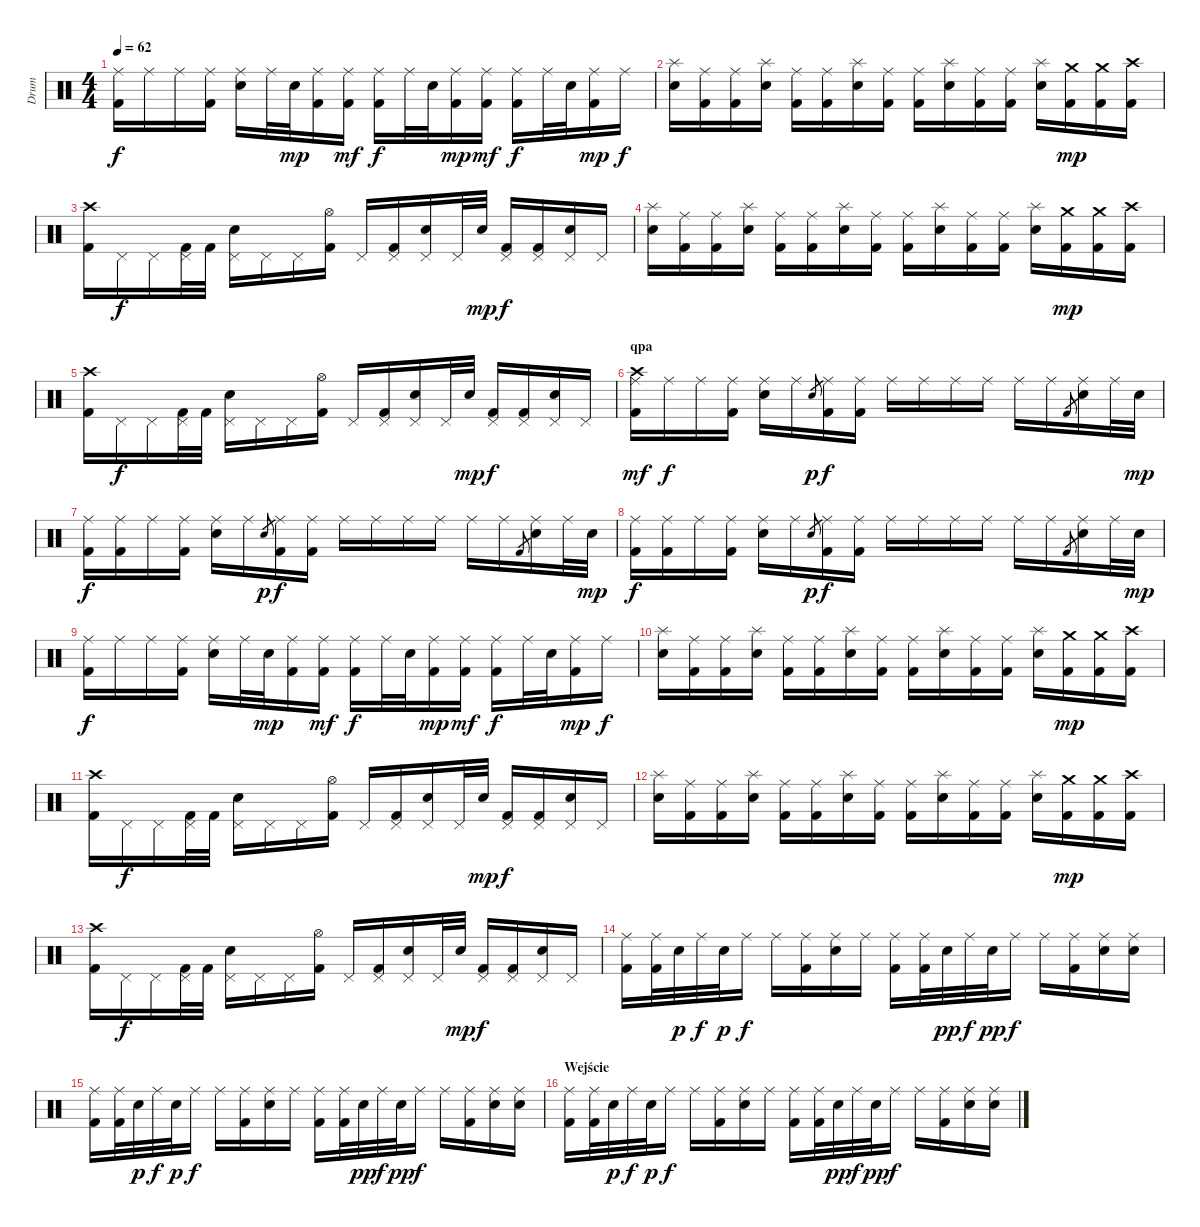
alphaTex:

\track ("Drum" "Drum") {instrument percussion}
\staff {score}
\articulation defaults
\ts (4 4)
\tempo 62
\clef neutral
\ks c
("Ride (middle)" "Kick (hit) 2").16{dy f} "Ride (middle)".16 "Ride (middle)".16 ("Ride (middle)" "Kick (hit) 2").16 ("Ride (middle)" "Electric Snare (hit)").16 "Ride (middle)".32 "Snare (hit) 2".32{dy mp} ("Ride (middle)" "Kick (hit) 2").16 ("Ride (middle)" "Kick (hit) 2").16{dy mf} ("Ride (middle)" "Kick (hit) 2").16{dy f} "Ride (middle)".32 "Electric Snare (hit)".32 ("Ride (middle)" "Kick (hit) 2").16{dy mp} ("Ride (middle)" "Kick (hit) 2").16{dy mf} ("Ride (middle)" "Kick (hit) 2").16{dy f} "Ride (middle)".32 "Electric Snare (hit)".32 ("Ride (middle)" "Kick (hit) 2").16{dy mp} "Ride (middle)".16{dy f} |
("Splash (hit)" "Electric Snare (hit)").16 ("Ride (middle)" "Kick (hit) 2").16 ("Ride (middle)" "Kick (hit) 2").16 ("Splash (hit)" "Electric Snare (hit)").16 ("Ride (middle)" "Kick (hit) 2").16 ("Ride (middle)" "Kick (hit) 2").16 ("Splash (hit)" "Electric Snare (hit)").16 ("Ride (middle)" "Kick (hit) 2").16 ("Ride (middle)" "Kick (hit) 2").16 ("Splash (hit)" "Electric Snare (hit)").16 ("Ride (middle)" "Kick (hit) 2").16 ("Ride (middle)" "Kick (hit) 2").16 ("Splash (hit)" "Electric Snare (hit)").16 ("Crash medium (hit)" "Kick (hit) 2").16{dy mp} ("Crash medium (hit)" "Kick (hit) 2").16 ("Crash high (hit)" "Kick (hit) 2").16 |
("Crash high (hit)" "Kick (hit) 2").16 "Pedal Hi-Hat (hit)".16{dy f} "Pedal Hi-Hat (hit)".16 ("Pedal Hi-Hat (hit)" "Kick (hit) 2").32 "Kick (hit) 2".32 ("Pedal Hi-Hat (hit)" "Electric Snare (hit)").16 "Pedal Hi-Hat (hit)".16 "Pedal Hi-Hat (hit)".16 ("Hi-Hat (open)" "Kick (hit) 2").16 "Pedal Hi-Hat (hit)".16 ("Pedal Hi-Hat (hit)" "Kick (hit) 2").16 ("Pedal Hi-Hat (hit)" "Electric Snare (hit)").16 "Pedal Hi-Hat (hit)".32 "Electric Snare (hit)".32{dy mp} ("Pedal Hi-Hat (hit)" "Kick (hit) 2").16{dy f} ("Pedal Hi-Hat (hit)" "Kick (hit) 2").16 ("Pedal Hi-Hat (hit)" "Electric Snare (hit)").16 "Pedal Hi-Hat (hit)".16 |
("Splash (hit)" "Electric Snare (hit)").16 ("Ride (middle)" "Kick (hit) 2").16 ("Ride (middle)" "Kick (hit) 2").16 ("Splash (hit)" "Electric Snare (hit)").16 ("Ride (middle)" "Kick (hit) 2").16 ("Ride (middle)" "Kick (hit) 2").16 ("Splash (hit)" "Electric Snare (hit)").16 ("Ride (middle)" "Kick (hit) 2").16 ("Ride (middle)" "Kick (hit) 2").16 ("Splash (hit)" "Electric Snare (hit)").16 ("Ride (middle)" "Kick (hit) 2").16 ("Ride (middle)" "Kick (hit) 2").16 ("Splash (hit)" "Electric Snare (hit)").16 ("Crash medium (hit)" "Kick (hit) 2").16{dy mp} ("Crash medium (hit)" "Kick (hit) 2").16 ("Crash high (hit)" "Kick (hit) 2").16 |
("Crash high (hit)" "Kick (hit) 2").16 "Pedal Hi-Hat (hit)".16{dy f} "Pedal Hi-Hat (hit)".16 ("Pedal Hi-Hat (hit)" "Kick (hit) 2").32 "Kick (hit) 2".32 ("Pedal Hi-Hat (hit)" "Electric Snare (hit)").16 "Pedal Hi-Hat (hit)".16 "Pedal Hi-Hat (hit)".16 ("Hi-Hat (open)" "Kick (hit) 2").16 "Pedal Hi-Hat (hit)".16 ("Pedal Hi-Hat (hit)" "Kick (hit) 2").16 ("Pedal Hi-Hat (hit)" "Electric Snare (hit)").16 "Pedal Hi-Hat (hit)".32 "Electric Snare (hit)".32{dy mp} ("Pedal Hi-Hat (hit)" "Kick (hit) 2").16{dy f} ("Pedal Hi-Hat (hit)" "Kick (hit) 2").16 ("Pedal Hi-Hat (hit)" "Electric Snare (hit)").16 "Pedal Hi-Hat (hit)".16 |
\section ("" "qpa")
("Crash high (hit)" "Ride (middle)" "Kick (hit) 2").16{dy mf} "Ride (middle)".16{dy f} "Ride (middle)".16 ("Ride (middle)" "Kick (hit) 2").16 ("Ride (middle)" "Electric Snare (hit)").16 "Ride (middle)".16 "Snare (hit) 2".8{gr dy p} ("Ride (middle)" "Kick (hit) 2").16{dy f} ("Ride (middle)" "Kick (hit) 2").16 "Ride (middle)".16 "Ride (middle)".16 "Ride (middle)".16 "Ride (middle)".16 "Ride (middle)".16 "Ride (middle)".16 "Kick (hit) 2".8{gr} ("Ride (middle)" "Electric Snare (hit)").16 "Ride (middle)".32 "Snare (hit) 2".32{dy mp} |
("Ride (middle)" "Kick (hit) 2").16{dy f} ("Ride (middle)" "Kick (hit) 2").16 "Ride (middle)".16 ("Ride (middle)" "Kick (hit) 2").16 ("Ride (middle)" "Electric Snare (hit)").16 "Ride (middle)".16 "Snare (hit) 2".8{gr dy p} ("Ride (middle)" "Kick (hit) 2").16{dy f} ("Ride (middle)" "Kick (hit) 2").16 "Ride (middle)".16 "Ride (middle)".16 "Ride (middle)".16 "Ride (middle)".16 "Ride (middle)".16 "Ride (middle)".16 "Kick (hit) 2".8{gr} ("Ride (middle)" "Electric Snare (hit)").16 "Ride (middle)".32 "Snare (hit) 2".32{dy mp} |
("Ride (middle)" "Kick (hit) 2").16{dy f} ("Ride (middle)" "Kick (hit) 2").16 "Ride (middle)".16 ("Ride (middle)" "Kick (hit) 2").16 ("Ride (middle)" "Electric Snare (hit)").16 "Ride (middle)".16 "Snare (hit) 2".8{gr dy p} ("Ride (middle)" "Kick (hit) 2").16{dy f} ("Ride (middle)" "Kick (hit) 2").16 "Ride (middle)".16 "Ride (middle)".16 "Ride (middle)".16 "Ride (middle)".16 "Ride (middle)".16 "Ride (middle)".16 "Kick (hit) 2".8{gr} ("Ride (middle)" "Electric Snare (hit)").16 "Ride (middle)".32 "Snare (hit) 2".32{dy mp} |
("Ride (middle)" "Kick (hit) 2").16{dy f} "Ride (middle)".16 "Ride (middle)".16 ("Ride (middle)" "Kick (hit) 2").16 ("Ride (middle)" "Electric Snare (hit)").16 "Ride (middle)".32 "Snare (hit) 2".32{dy mp} ("Ride (middle)" "Kick (hit) 2").16 ("Ride (middle)" "Kick (hit) 2").16{dy mf} ("Ride (middle)" "Kick (hit) 2").16{dy f} "Ride (middle)".32 "Electric Snare (hit)".32 ("Ride (middle)" "Kick (hit) 2").16{dy mp} ("Ride (middle)" "Kick (hit) 2").16{dy mf} ("Ride (middle)" "Kick (hit) 2").16{dy f} "Ride (middle)".32 "Electric Snare (hit)".32 ("Ride (middle)" "Kick (hit) 2").16{dy mp} "Ride (middle)".16{dy f} |
("Splash (hit)" "Electric Snare (hit)").16 ("Ride (middle)" "Kick (hit) 2").16 ("Ride (middle)" "Kick (hit) 2").16 ("Splash (hit)" "Electric Snare (hit)").16 ("Ride (middle)" "Kick (hit) 2").16 ("Ride (middle)" "Kick (hit) 2").16 ("Splash (hit)" "Electric Snare (hit)").16 ("Ride (middle)" "Kick (hit) 2").16 ("Ride (middle)" "Kick (hit) 2").16 ("Splash (hit)" "Electric Snare (hit)").16 ("Ride (middle)" "Kick (hit) 2").16 ("Ride (middle)" "Kick (hit) 2").16 ("Splash (hit)" "Electric Snare (hit)").16 ("Crash medium (hit)" "Kick (hit) 2").16{dy mp} ("Crash medium (hit)" "Kick (hit) 2").16 ("Crash high (hit)" "Kick (hit) 2").16 |
("Crash high (hit)" "Kick (hit) 2").16 "Pedal Hi-Hat (hit)".16{dy f} "Pedal Hi-Hat (hit)".16 ("Pedal Hi-Hat (hit)" "Kick (hit) 2").32 "Kick (hit) 2".32 ("Pedal Hi-Hat (hit)" "Electric Snare (hit)").16 "Pedal Hi-Hat (hit)".16 "Pedal Hi-Hat (hit)".16 ("Hi-Hat (open)" "Kick (hit) 2").16 "Pedal Hi-Hat (hit)".16 ("Pedal Hi-Hat (hit)" "Kick (hit) 2").16 ("Pedal Hi-Hat (hit)" "Electric Snare (hit)").16 "Pedal Hi-Hat (hit)".32 "Electric Snare (hit)".32{dy mp} ("Pedal Hi-Hat (hit)" "Kick (hit) 2").16{dy f} ("Pedal Hi-Hat (hit)" "Kick (hit) 2").16 ("Pedal Hi-Hat (hit)" "Electric Snare (hit)").16 "Pedal Hi-Hat (hit)".16 |
("Splash (hit)" "Electric Snare (hit)").16 ("Ride (middle)" "Kick (hit) 2").16 ("Ride (middle)" "Kick (hit) 2").16 ("Splash (hit)" "Electric Snare (hit)").16 ("Ride (middle)" "Kick (hit) 2").16 ("Ride (middle)" "Kick (hit) 2").16 ("Splash (hit)" "Electric Snare (hit)").16 ("Ride (middle)" "Kick (hit) 2").16 ("Ride (middle)" "Kick (hit) 2").16 ("Splash (hit)" "Electric Snare (hit)").16 ("Ride (middle)" "Kick (hit) 2").16 ("Ride (middle)" "Kick (hit) 2").16 ("Splash (hit)" "Electric Snare (hit)").16 ("Crash medium (hit)" "Kick (hit) 2").16{dy mp} ("Crash medium (hit)" "Kick (hit) 2").16 ("Crash high (hit)" "Kick (hit) 2").16 |
("Crash high (hit)" "Kick (hit) 2").16 "Pedal Hi-Hat (hit)".16{dy f} "Pedal Hi-Hat (hit)".16 ("Pedal Hi-Hat (hit)" "Kick (hit) 2").32 "Kick (hit) 2".32 ("Pedal Hi-Hat (hit)" "Electric Snare (hit)").16 "Pedal Hi-Hat (hit)".16 "Pedal Hi-Hat (hit)".16 ("Hi-Hat (open)" "Kick (hit) 2").16 "Pedal Hi-Hat (hit)".16 ("Pedal Hi-Hat (hit)" "Kick (hit) 2").16 ("Pedal Hi-Hat (hit)" "Electric Snare (hit)").16 "Pedal Hi-Hat (hit)".32 "Electric Snare (hit)".32{dy mp} ("Pedal Hi-Hat (hit)" "Kick (hit) 2").16{dy f} ("Pedal Hi-Hat (hit)" "Kick (hit) 2").16 ("Pedal Hi-Hat (hit)" "Electric Snare (hit)").16 "Pedal Hi-Hat (hit)".16 |
("Ride (middle)" "Kick (hit) 2").16 ("Ride (middle)" "Kick (hit) 2").32 "Electric Snare (hit)".32{dy p} "Ride (middle)".32{dy f} "Electric Snare (hit)".32{dy p} "Ride (middle)".16{dy f} "Ride (middle)".16 ("Ride (middle)" "Kick (hit) 2").16 ("Ride (middle)" "Electric Snare (hit)").16 "Ride (middle)".16 ("Ride (middle)" "Kick (hit) 2").16 ("Ride (middle)" "Kick (hit) 2").32 "Electric Snare (hit)".32{dy pp} "Ride (middle)".32{dy f} "Electric Snare (hit)".32{dy pp} "Ride (middle)".16{dy f} "Ride (middle)".16 ("Ride (middle)" "Kick (hit) 2").16 ("Ride (middle)" "Electric Snare (hit)").16 ("Ride (middle)" "Electric Snare (hit)").16 |
("Ride (middle)" "Kick (hit) 2").16 ("Ride (middle)" "Kick (hit) 2").32 "Electric Snare (hit)".32{dy p} "Ride (middle)".32{dy f} "Electric Snare (hit)".32{dy p} "Ride (middle)".16{dy f} "Ride (middle)".16 ("Ride (middle)" "Kick (hit) 2").16 ("Ride (middle)" "Electric Snare (hit)").16 "Ride (middle)".16 ("Ride (middle)" "Kick (hit) 2").16 ("Ride (middle)" "Kick (hit) 2").32 "Electric Snare (hit)".32{dy pp} "Ride (middle)".32{dy f} "Electric Snare (hit)".32{dy pp} "Ride (middle)".16{dy f} "Ride (middle)".16 ("Ride (middle)" "Kick (hit) 2").16 ("Ride (middle)" "Electric Snare (hit)").16 ("Ride (middle)" "Electric Snare (hit)").16 |
\section ("" "Wejście")
("Ride (middle)" "Kick (hit) 2").16 ("Ride (middle)" "Kick (hit) 2").32 "Electric Snare (hit)".32{dy p} "Ride (middle)".32{dy f} "Electric Snare (hit)".32{dy p} "Ride (middle)".16{dy f} "Ride (middle)".16 ("Ride (middle)" "Kick (hit) 2").16 ("Ride (middle)" "Electric Snare (hit)").16 "Ride (middle)".16 ("Ride (middle)" "Kick (hit) 2").16 ("Ride (middle)" "Kick (hit) 2").32 "Electric Snare (hit)".32{dy pp} "Ride (middle)".32{dy f} "Electric Snare (hit)".32{dy pp} "Ride (middle)".16{dy f} "Ride (middle)".16 ("Ride (middle)" "Kick (hit) 2").16 ("Ride (middle)" "Electric Snare (hit)").16 ("Ride (middle)" "Electric Snare (hit)").16
